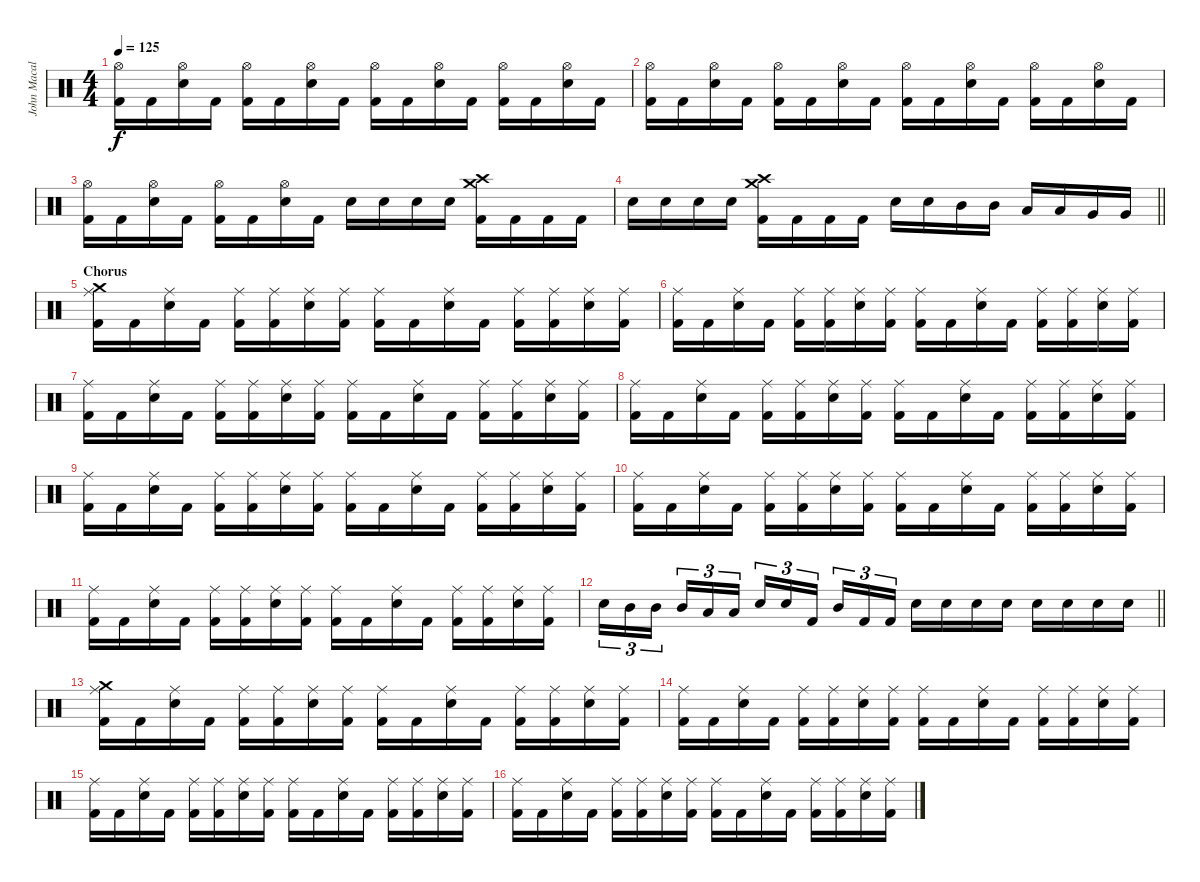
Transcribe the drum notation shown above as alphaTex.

\track ("John Macaluso " "John Macal") {instrument percussion}
\staff {score}
\articulation defaults
\ts (4 4)
\tempo 125
\clef neutral
\ks c
("Hi-Hat (open)" "Kick (hit) 2").16{dy f} "Kick (hit) 2".16 ("Hi-Hat (open)" "Snare (hit) 2").16 "Kick (hit) 2".16 ("Hi-Hat (open)" "Kick (hit) 2").16 "Kick (hit) 2".16 ("Hi-Hat (open)" "Snare (hit) 2").16 "Kick (hit) 2".16 ("Hi-Hat (open)" "Kick (hit) 2").16 "Kick (hit) 2".16 ("Hi-Hat (open)" "Snare (hit) 2").16 "Kick (hit) 2".16 ("Hi-Hat (open)" "Kick (hit) 2").16 "Kick (hit) 2".16 ("Hi-Hat (open)" "Snare (hit) 2").16 "Kick (hit) 2".16 |
("Hi-Hat (open)" "Kick (hit) 2").16 "Kick (hit) 2".16 ("Hi-Hat (open)" "Snare (hit) 2").16 "Kick (hit) 2".16 ("Hi-Hat (open)" "Kick (hit) 2").16 "Kick (hit) 2".16 ("Hi-Hat (open)" "Snare (hit) 2").16 "Kick (hit) 2".16 ("Hi-Hat (open)" "Kick (hit) 2").16 "Kick (hit) 2".16 ("Hi-Hat (open)" "Snare (hit) 2").16 "Kick (hit) 2".16 ("Hi-Hat (open)" "Kick (hit) 2").16 "Kick (hit) 2".16 ("Hi-Hat (open)" "Snare (hit) 2").16 "Kick (hit) 2".16 |
("Hi-Hat (open)" "Kick (hit) 2").16 "Kick (hit) 2".16 ("Hi-Hat (open)" "Snare (hit) 2").16 "Kick (hit) 2".16 ("Hi-Hat (open)" "Kick (hit) 2").16 "Kick (hit) 2".16 ("Hi-Hat (open)" "Snare (hit) 2").16 "Kick (hit) 2".16 "Snare (hit) 2".16 "Snare (hit) 2".16 "Snare (hit) 2".16 "Snare (hit) 2".16 ("Crash medium (hit)" "Crash high (hit)" "Kick (hit) 2").16 "Kick (hit) 2".16 "Kick (hit) 2".16 "Kick (hit) 2".16 |
\barLineRight lightlight "Snare (hit) 2".16 "Snare (hit) 2".16 "Snare (hit) 2".16 "Snare (hit) 2".16
("Crash medium (hit)" "Crash high (hit)" "Kick (hit) 2").16 "Kick (hit) 2".16 "Kick (hit) 2".16 "Kick (hit) 2".16 "Snare (hit) 2".16 "Snare (hit) 2".16 "Mid Tom (hit)".16 "Mid Tom (hit)".16 "Low Tom (hit)".16 "Low Tom (hit)".16 "Very Low Tom (hit)".16 "Very Low Tom (hit)".16 |
\section ("" "Chorus")
("Crash medium (hit)" "Ride (middle)" "Kick (hit) 2").16 "Kick (hit) 2".16 ("Ride (middle)" "Snare (hit) 2").16 "Kick (hit) 2".16 ("Ride (middle)" "Kick (hit) 2").16 ("Ride (middle)" "Kick (hit) 2").16 ("Ride (middle)" "Snare (hit) 2").16 ("Ride (middle)" "Kick (hit) 2").16 ("Ride (middle)" "Kick (hit) 2").16 "Kick (hit) 2".16 ("Ride (middle)" "Snare (hit) 2").16 "Kick (hit) 2".16 ("Ride (middle)" "Kick (hit) 2").16 ("Ride (middle)" "Kick (hit) 2").16 ("Ride (middle)" "Snare (hit) 2").16 ("Ride (middle)" "Kick (hit) 2").16 |
("Ride (middle)" "Kick (hit) 2").16 "Kick (hit) 2".16 ("Ride (middle)" "Snare (hit) 2").16 "Kick (hit) 2".16 ("Ride (middle)" "Kick (hit) 2").16 ("Ride (middle)" "Kick (hit) 2").16 ("Ride (middle)" "Snare (hit) 2").16 ("Ride (middle)" "Kick (hit) 2").16 ("Ride (middle)" "Kick (hit) 2").16 "Kick (hit) 2".16 ("Ride (middle)" "Snare (hit) 2").16 "Kick (hit) 2".16 ("Ride (middle)" "Kick (hit) 2").16 ("Ride (middle)" "Kick (hit) 2").16 ("Ride (middle)" "Snare (hit) 2").16 ("Ride (middle)" "Kick (hit) 2").16 |
("Ride (middle)" "Kick (hit) 2").16 "Kick (hit) 2".16 ("Ride (middle)" "Snare (hit) 2").16 "Kick (hit) 2".16 ("Ride (middle)" "Kick (hit) 2").16 ("Ride (middle)" "Kick (hit) 2").16 ("Ride (middle)" "Snare (hit) 2").16 ("Ride (middle)" "Kick (hit) 2").16 ("Ride (middle)" "Kick (hit) 2").16 "Kick (hit) 2".16 ("Ride (middle)" "Snare (hit) 2").16 "Kick (hit) 2".16 ("Ride (middle)" "Kick (hit) 2").16 ("Ride (middle)" "Kick (hit) 2").16 ("Ride (middle)" "Snare (hit) 2").16 ("Ride (middle)" "Kick (hit) 2").16 |
("Ride (middle)" "Kick (hit) 2").16 "Kick (hit) 2".16 ("Ride (middle)" "Snare (hit) 2").16 "Kick (hit) 2".16 ("Ride (middle)" "Kick (hit) 2").16 ("Ride (middle)" "Kick (hit) 2").16 ("Ride (middle)" "Snare (hit) 2").16 ("Ride (middle)" "Kick (hit) 2").16 ("Ride (middle)" "Kick (hit) 2").16 "Kick (hit) 2".16 ("Ride (middle)" "Snare (hit) 2").16 "Kick (hit) 2".16 ("Ride (middle)" "Kick (hit) 2").16 ("Ride (middle)" "Kick (hit) 2").16 ("Ride (middle)" "Snare (hit) 2").16 ("Ride (middle)" "Kick (hit) 2").16 |
("Ride (middle)" "Kick (hit) 2").16 "Kick (hit) 2".16 ("Ride (middle)" "Snare (hit) 2").16 "Kick (hit) 2".16 ("Ride (middle)" "Kick (hit) 2").16 ("Ride (middle)" "Kick (hit) 2").16 ("Ride (middle)" "Snare (hit) 2").16 ("Ride (middle)" "Kick (hit) 2").16 ("Ride (middle)" "Kick (hit) 2").16 "Kick (hit) 2".16 ("Ride (middle)" "Snare (hit) 2").16 "Kick (hit) 2".16 ("Ride (middle)" "Kick (hit) 2").16 ("Ride (middle)" "Kick (hit) 2").16 ("Ride (middle)" "Snare (hit) 2").16 ("Ride (middle)" "Kick (hit) 2").16 |
("Ride (middle)" "Kick (hit) 2").16 "Kick (hit) 2".16 ("Ride (middle)" "Snare (hit) 2").16 "Kick (hit) 2".16 ("Ride (middle)" "Kick (hit) 2").16 ("Ride (middle)" "Kick (hit) 2").16 ("Ride (middle)" "Snare (hit) 2").16 ("Ride (middle)" "Kick (hit) 2").16 ("Ride (middle)" "Kick (hit) 2").16 "Kick (hit) 2".16 ("Ride (middle)" "Snare (hit) 2").16 "Kick (hit) 2".16 ("Ride (middle)" "Kick (hit) 2").16 ("Ride (middle)" "Kick (hit) 2").16 ("Ride (middle)" "Snare (hit) 2").16 ("Ride (middle)" "Kick (hit) 2").16 |
("Ride (middle)" "Kick (hit) 2").16 "Kick (hit) 2".16 ("Ride (middle)" "Snare (hit) 2").16 "Kick (hit) 2".16 ("Ride (middle)" "Kick (hit) 2").16 ("Ride (middle)" "Kick (hit) 2").16 ("Ride (middle)" "Snare (hit) 2").16 ("Ride (middle)" "Kick (hit) 2").16 ("Ride (middle)" "Kick (hit) 2").16 "Kick (hit) 2".16 ("Ride (middle)" "Snare (hit) 2").16 "Kick (hit) 2".16 ("Ride (middle)" "Kick (hit) 2").16 ("Ride (middle)" "Kick (hit) 2").16 ("Ride (middle)" "Snare (hit) 2").16 ("Ride (middle)" "Kick (hit) 2").16 |
\barLineRight lightlight "Snare (hit) 2".16{tu (3 2)} "Mid Tom (hit)".16{tu (3 2)} "Mid Tom (hit)".16{tu (3 2) beam splitsecondary} "Mid Tom (hit)".16{tu (3 2)} "Low Tom (hit)".16{tu (3 2)} "Low Tom (hit)".16{tu (3 2)} "Snare (hit) 2".16{tu (3 2)} "Snare (hit) 2".16{tu (3 2)} "Kick (hit) 2".16{tu (3 2) beam splitsecondary} "Mid Tom (hit)".16{tu (3 2)} "Kick (hit) 2".16{tu (3 2)} "Kick (hit) 2".16{tu (3 2)} "Snare (hit) 2".16 "Snare (hit) 2".16 "Snare (hit) 2".16 "Snare (hit) 2".16 "Snare (hit) 2".16 "Snare (hit) 2".16 "Snare (hit) 2".16 "Snare (hit) 2".16
|
("Crash medium (hit)" "Ride (middle)" "Kick (hit) 2").16 "Kick (hit) 2".16 ("Ride (middle)" "Snare (hit) 2").16 "Kick (hit) 2".16 ("Ride (middle)" "Kick (hit) 2").16 ("Ride (middle)" "Kick (hit) 2").16 ("Ride (middle)" "Snare (hit) 2").16 ("Ride (middle)" "Kick (hit) 2").16 ("Ride (middle)" "Kick (hit) 2").16 "Kick (hit) 2".16 ("Ride (middle)" "Snare (hit) 2").16 "Kick (hit) 2".16 ("Ride (middle)" "Kick (hit) 2").16 ("Ride (middle)" "Kick (hit) 2").16 ("Ride (middle)" "Snare (hit) 2").16 ("Ride (middle)" "Kick (hit) 2").16 |
("Ride (middle)" "Kick (hit) 2").16 "Kick (hit) 2".16 ("Ride (middle)" "Snare (hit) 2").16 "Kick (hit) 2".16 ("Ride (middle)" "Kick (hit) 2").16 ("Ride (middle)" "Kick (hit) 2").16 ("Ride (middle)" "Snare (hit) 2").16 ("Ride (middle)" "Kick (hit) 2").16 ("Ride (middle)" "Kick (hit) 2").16 "Kick (hit) 2".16 ("Ride (middle)" "Snare (hit) 2").16 "Kick (hit) 2".16 ("Ride (middle)" "Kick (hit) 2").16 ("Ride (middle)" "Kick (hit) 2").16 ("Ride (middle)" "Snare (hit) 2").16 ("Ride (middle)" "Kick (hit) 2").16 |
("Ride (middle)" "Kick (hit) 2").16 "Kick (hit) 2".16 ("Ride (middle)" "Snare (hit) 2").16 "Kick (hit) 2".16 ("Ride (middle)" "Kick (hit) 2").16 ("Ride (middle)" "Kick (hit) 2").16 ("Ride (middle)" "Snare (hit) 2").16 ("Ride (middle)" "Kick (hit) 2").16 ("Ride (middle)" "Kick (hit) 2").16 "Kick (hit) 2".16 ("Ride (middle)" "Snare (hit) 2").16 "Kick (hit) 2".16 ("Ride (middle)" "Kick (hit) 2").16 ("Ride (middle)" "Kick (hit) 2").16 ("Ride (middle)" "Snare (hit) 2").16 ("Ride (middle)" "Kick (hit) 2").16 |
("Ride (middle)" "Kick (hit) 2").16 "Kick (hit) 2".16 ("Ride (middle)" "Snare (hit) 2").16 "Kick (hit) 2".16 ("Ride (middle)" "Kick (hit) 2").16 ("Ride (middle)" "Kick (hit) 2").16 ("Ride (middle)" "Snare (hit) 2").16 ("Ride (middle)" "Kick (hit) 2").16 ("Ride (middle)" "Kick (hit) 2").16 "Kick (hit) 2".16 ("Ride (middle)" "Snare (hit) 2").16 "Kick (hit) 2".16 ("Ride (middle)" "Kick (hit) 2").16 ("Ride (middle)" "Kick (hit) 2").16 ("Ride (middle)" "Snare (hit) 2").16 ("Ride (middle)" "Kick (hit) 2").16
